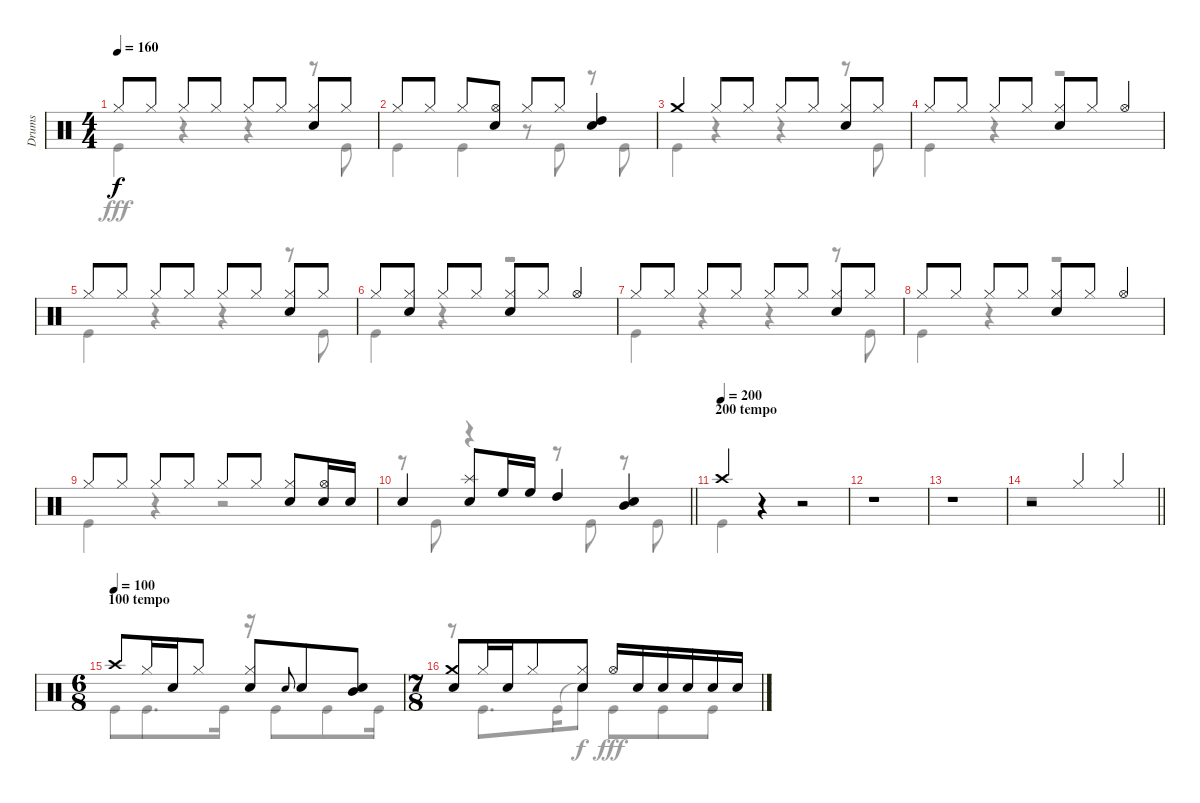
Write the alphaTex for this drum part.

\track ("Drums" "Drums") {instrument percussion}
\staff {score}
\articulation defaults
\voice
\ts (4 4)
\tempo 160
\clef neutral
\ks c "Hi-Hat (closed)".8{dy f} "Hi-Hat (closed)".8 "Hi-Hat (closed)".8 "Hi-Hat (closed)".8 "Hi-Hat (closed)".8 "Hi-Hat (closed)".8
("Hi-Hat (closed)" "Snare (hit) 2").8 "Hi-Hat (closed)".8 |
"Hi-Hat (closed)".8 "Hi-Hat (closed)".8 "Hi-Hat (closed)".8 ("Hi-Hat (open)" "Snare (hit) 2").8 "Hi-Hat (closed)".8 "Hi-Hat (closed)".8 ("High Tom (hit)" "Snare (hit) 2").4 |
"Crash medium (hit)".4 "Hi-Hat (closed)".8 "Hi-Hat (closed)".8 "Hi-Hat (closed)".8 "Hi-Hat (closed)".8 ("Hi-Hat (closed)" "Snare (hit) 2").8 "Hi-Hat (closed)".8 |
"Hi-Hat (closed)".8 "Hi-Hat (closed)".8 "Hi-Hat (closed)".8 "Hi-Hat (closed)".8 ("Hi-Hat (closed)" "Snare (hit) 2").8 "Hi-Hat (closed)".8 "Hi-Hat (open)".4 |
"Hi-Hat (closed)".8 "Hi-Hat (closed)".8 "Hi-Hat (closed)".8 "Hi-Hat (closed)".8 "Hi-Hat (closed)".8 "Hi-Hat (closed)".8 ("Hi-Hat (closed)" "Snare (hit) 2").8 "Hi-Hat (closed)".8 |
"Hi-Hat (closed)".8 ("Hi-Hat (closed)" "Snare (hit) 2").8 "Hi-Hat (closed)".8 "Hi-Hat (closed)".8 ("Hi-Hat (closed)" "Snare (hit) 2").8 "Hi-Hat (closed)".8 "Hi-Hat (open)".4 |
"Hi-Hat (closed)".8 "Hi-Hat (closed)".8 "Hi-Hat (closed)".8 "Hi-Hat (closed)".8 "Hi-Hat (closed)".8 "Hi-Hat (closed)".8 ("Hi-Hat (closed)" "Snare (hit) 2").8 "Hi-Hat (closed)".8 |
"Hi-Hat (closed)".8 "Hi-Hat (closed)".8 "Hi-Hat (closed)".8 "Hi-Hat (closed)".8 ("Hi-Hat (closed)" "Snare (hit) 2").8 "Hi-Hat (closed)".8 "Hi-Hat (open)".4 |
"Hi-Hat (closed)".8 "Hi-Hat (closed)".8 "Hi-Hat (closed)".8 "Hi-Hat (closed)".8 "Hi-Hat (closed)".8 "Hi-Hat (closed)".8 ("Hi-Hat (closed)" "Snare (hit) 2").8 ("Hi-Hat (open)" "Snare (hit) 2").16 "Snare (hit) 2".16 |
\barLineRight lightlight "Snare (hit) 2".4
("Splash (hit)" "Snare (hit) 2").8 "High Floor Tom (hit)".16 "High Floor Tom (hit)".16 "High Tom (hit)".4 ("Mid Tom (hit)" "Snare (hit) 2").4 |
\section ("" "200 tempo")
\tempo (200)
"Crash high (hit)".4 r.4 r.2 |
r.1 |
r.1 |
\barLineRight lightlight
r.2 "Hi-Hat (closed)".4 "Hi-Hat (closed)".4 |
\ts (6 8)
\section ("" "100 tempo")
\tempo (100)
"Crash high (hit)".8 "Hi-Hat (closed)".16 "Snare (hit) 2".16 "Hi-Hat (closed)".8 ("Hi-Hat (closed)" "Snare (hit) 2").8 "Snare (hit) 2".8{gr onbeat} "Snare (hit) 2".8 ("Mid Tom (hit)" "Snare (hit) 2").8 |
\ts (7 8)
("Crash medium (hit)" "Snare (hit) 2").8 "Hi-Hat (closed)".16 "Snare (hit) 2".16 "Hi-Hat (closed)".8 ("Hi-Hat (closed)" "Snare (hit) 2").8 "Hi-Hat (open)".16 "Snare (hit) 2".16 "Snare (hit) 2".16 "Snare (hit) 2".16 "Snare (hit) 2".16 "Snare (hit) 2".16
\voice
\clef neutral
\ottava regular
\simile none
\ks c "Kick (hit)".4{dy fff}
r.4 r.4 r.8 "Kick (hit)".8 |
"Kick (hit)".4 "Kick (hit)".4 r.8 "Kick (hit)".8 r.8 "Kick (hit)".8 |
"Kick (hit)".4 r.4 r.4 r.8 "Kick (hit)".8 |
"Kick (hit)".4 r.4 r.2 |
"Kick (hit)".4 r.4 r.4 r.8 "Kick (hit)".8 |
"Kick (hit)".4 r.4 r.2 |
"Kick (hit)".4 r.4 r.4 r.8 "Kick (hit)".8 |
"Kick (hit)".4 r.4 r.2 |
"Kick (hit)".4 r.4 r.2 |
\barLineRight lightlight
r.8 "Kick (hit)".8 r.4 r.8 "Kick (hit)".8 r.8 "Kick (hit)".8 |
"Kick (hit)".4 r.4 r.2 |
r.1 |
r.1 |
\barLineRight lightlight
r.1 |
"Kick (hit)".8 "Kick (hit)".8{d} "Kick (hit)".16 r.16 "Kick (hit)".8 "Kick (hit)".8 "Kick (hit)".16 |
r.8 "Kick (hit)".8{d} "Kick (hit)".16 "Snare (hit)"{t}.8{dy f} "Kick (hit)".8{dy fff} "Kick (hit)".8 "Kick (hit)".8
